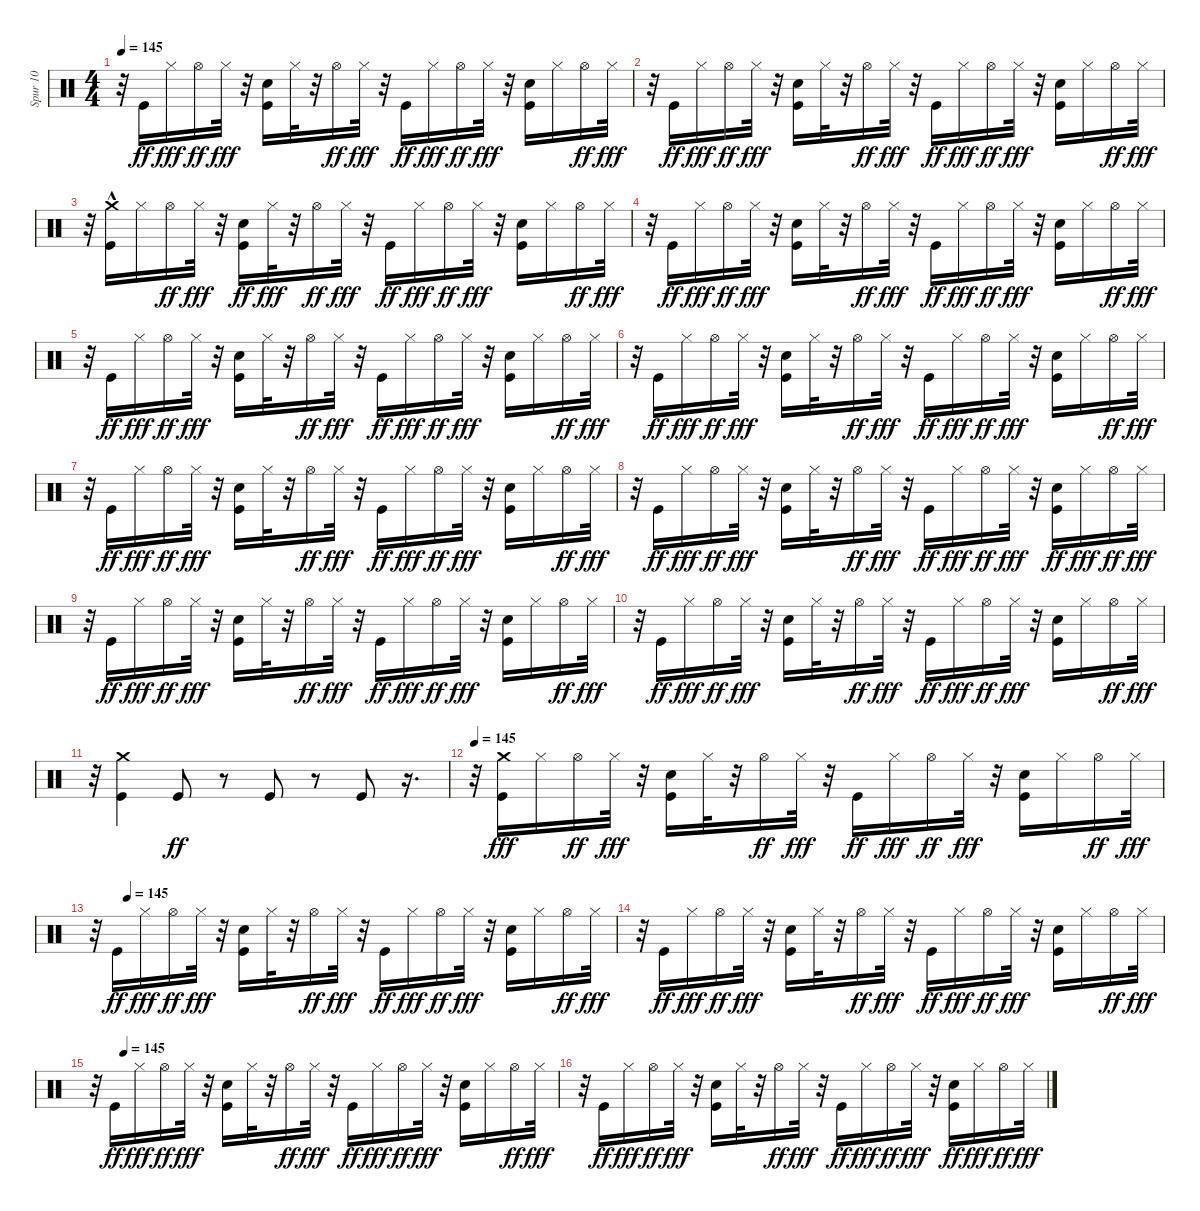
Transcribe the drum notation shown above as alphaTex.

\track ("Spur 10" "Spur 10") {instrument percussion}
\staff {score}
\articulation defaults
\ts (4 4)
\tempo 145
\clef neutral
\ks c
r.32{dy fff} "Kick (hit)".16{dy ff} "Hi-Hat (closed)".16{dy fff} "Hi-Hat (open)".16{dy ff} "Hi-Hat (closed)".32{dy fff} r.32 ("Kick (hit)" "Hand Clap (hit)").16 "Hi-Hat (closed)".32 r.32 "Hi-Hat (open)".16{dy ff} "Hi-Hat (closed)".32{dy fff} r.32 "Kick (hit)".16{dy ff} "Hi-Hat (closed)".16{dy fff} "Hi-Hat (open)".16{dy ff} "Hi-Hat (closed)".32{dy fff} r.32 ("Kick (hit)" "Hand Clap (hit)").16 "Hi-Hat (closed)".16 "Hi-Hat (open)".16{dy ff} "Hi-Hat (closed)".32{dy fff} |
r.32 "Kick (hit)".16{dy ff} "Hi-Hat (closed)".16{dy fff} "Hi-Hat (open)".16{dy ff} "Hi-Hat (closed)".32{dy fff} r.32 ("Kick (hit)" "Hand Clap (hit)").16 "Hi-Hat (closed)".32 r.32 "Hi-Hat (open)".16{dy ff} "Hi-Hat (closed)".32{dy fff} r.32 "Kick (hit)".16{dy ff} "Hi-Hat (closed)".16{dy fff} "Hi-Hat (open)".16{dy ff} "Hi-Hat (closed)".32{dy fff} r.32 ("Kick (hit)" "Hand Clap (hit)").16 "Hi-Hat (closed)".16 "Hi-Hat (open)".16{dy ff} "Hi-Hat (closed)".32{dy fff} |
r.32 ("Kick (hit)" "Crash medium (hit)"{hac}).16 "Hi-Hat (closed)".16 "Hi-Hat (open)".16{dy ff} "Hi-Hat (closed)".32{dy fff} r.32 ("Hand Clap (hit)" "Kick (hit)").16{dy ff} "Hi-Hat (closed)".32{dy fff} r.32 "Hi-Hat (open)".16{dy ff} "Hi-Hat (closed)".32{dy fff} r.32 "Kick (hit)".16{dy ff} "Hi-Hat (closed)".16{dy fff} "Hi-Hat (open)".16{dy ff} "Hi-Hat (closed)".32{dy fff} r.32 ("Kick (hit)" "Hand Clap (hit)").16 "Hi-Hat (closed)".16 "Hi-Hat (open)".16{dy ff} "Hi-Hat (closed)".32{dy fff} |
r.32 "Kick (hit)".16{dy ff} "Hi-Hat (closed)".16{dy fff} "Hi-Hat (open)".16{dy ff} "Hi-Hat (closed)".32{dy fff} r.32 ("Kick (hit)" "Hand Clap (hit)").16 "Hi-Hat (closed)".32 r.32 "Hi-Hat (open)".16{dy ff} "Hi-Hat (closed)".32{dy fff} r.32 "Kick (hit)".16{dy ff} "Hi-Hat (closed)".16{dy fff} "Hi-Hat (open)".16{dy ff} "Hi-Hat (closed)".32{dy fff} r.32 ("Kick (hit)" "Hand Clap (hit)").16 "Hi-Hat (closed)".16 "Hi-Hat (open)".16{dy ff} "Hi-Hat (closed)".32{dy fff} |
r.32 "Kick (hit)".16{dy ff} "Hi-Hat (closed)".16{dy fff} "Hi-Hat (open)".16{dy ff} "Hi-Hat (closed)".32{dy fff} r.32 ("Kick (hit)" "Hand Clap (hit)").16 "Hi-Hat (closed)".32 r.32 "Hi-Hat (open)".16{dy ff} "Hi-Hat (closed)".32{dy fff} r.32 "Kick (hit)".16{dy ff} "Hi-Hat (closed)".16{dy fff} "Hi-Hat (open)".16{dy ff} "Hi-Hat (closed)".32{dy fff} r.32 ("Kick (hit)" "Hand Clap (hit)").16 "Hi-Hat (closed)".16 "Hi-Hat (open)".16{dy ff} "Hi-Hat (closed)".32{dy fff} |
r.32 "Kick (hit)".16{dy ff} "Hi-Hat (closed)".16{dy fff} "Hi-Hat (open)".16{dy ff} "Hi-Hat (closed)".32{dy fff} r.32 ("Kick (hit)" "Hand Clap (hit)").16 "Hi-Hat (closed)".32 r.32 "Hi-Hat (open)".16{dy ff} "Hi-Hat (closed)".32{dy fff} r.32 "Kick (hit)".16{dy ff} "Hi-Hat (closed)".16{dy fff} "Hi-Hat (open)".16{dy ff} "Hi-Hat (closed)".32{dy fff} r.32 ("Kick (hit)" "Hand Clap (hit)").16 "Hi-Hat (closed)".16 "Hi-Hat (open)".16{dy ff} "Hi-Hat (closed)".32{dy fff} |
r.32 "Kick (hit)".16{dy ff} "Hi-Hat (closed)".16{dy fff} "Hi-Hat (open)".16{dy ff} "Hi-Hat (closed)".32{dy fff} r.32 ("Kick (hit)" "Hand Clap (hit)").16 "Hi-Hat (closed)".32 r.32 "Hi-Hat (open)".16{dy ff} "Hi-Hat (closed)".32{dy fff} r.32 "Kick (hit)".16{dy ff} "Hi-Hat (closed)".16{dy fff} "Hi-Hat (open)".16{dy ff} "Hi-Hat (closed)".32{dy fff} r.32 ("Kick (hit)" "Hand Clap (hit)").16 "Hi-Hat (closed)".16 "Hi-Hat (open)".16{dy ff} "Hi-Hat (closed)".32{dy fff} |
r.32 "Kick (hit)".16{dy ff} "Hi-Hat (closed)".16{dy fff} "Hi-Hat (open)".16{dy ff} "Hi-Hat (closed)".32{dy fff} r.32 ("Kick (hit)" "Hand Clap (hit)").16 "Hi-Hat (closed)".32 r.32 "Hi-Hat (open)".16{dy ff} "Hi-Hat (closed)".32{dy fff} r.32 "Kick (hit)".16{dy ff} "Hi-Hat (closed)".16{dy fff} "Hi-Hat (open)".16{dy ff} "Hi-Hat (closed)".32{dy fff} r.32 ("Hand Clap (hit)" "Kick (hit)").16{dy ff} "Hi-Hat (closed)".16{dy fff} "Hi-Hat (open)".16{dy ff} "Hi-Hat (closed)".32{dy fff} |
r.32 "Kick (hit)".16{dy ff} "Hi-Hat (closed)".16{dy fff} "Hi-Hat (open)".16{dy ff} "Hi-Hat (closed)".32{dy fff} r.32 ("Kick (hit)" "Hand Clap (hit)").16 "Hi-Hat (closed)".32 r.32 "Hi-Hat (open)".16{dy ff} "Hi-Hat (closed)".32{dy fff} r.32 "Kick (hit)".16{dy ff} "Hi-Hat (closed)".16{dy fff} "Hi-Hat (open)".16{dy ff} "Hi-Hat (closed)".32{dy fff} r.32 ("Kick (hit)" "Hand Clap (hit)").16 "Hi-Hat (closed)".16 "Hi-Hat (open)".16{dy ff} "Hi-Hat (closed)".32{dy fff} |
r.32 "Kick (hit)".16{dy ff} "Hi-Hat (closed)".16{dy fff} "Hi-Hat (open)".16{dy ff} "Hi-Hat (closed)".32{dy fff} r.32 ("Kick (hit)" "Hand Clap (hit)").16 "Hi-Hat (closed)".32 r.32 "Hi-Hat (open)".16{dy ff} "Hi-Hat (closed)".32{dy fff} r.32 "Kick (hit)".16{dy ff} "Hi-Hat (closed)".16{dy fff} "Hi-Hat (open)".16{dy ff} "Hi-Hat (closed)".32{dy fff} r.32 ("Kick (hit)" "Hand Clap (hit)").16 "Hi-Hat (closed)".16 "Hi-Hat (open)".16{dy ff} "Hi-Hat (closed)".32{dy fff} |
r.32 ("Kick (hit)" "Crash medium (hit)").4 "Kick (hit)".8{dy ff} r.8 "Kick (hit)".8 r.8 "Kick (hit)".8 r.16{d} |
\tempo 145
r.32 ("Kick (hit)" "Crash medium (hit)").16{dy fff} "Hi-Hat (closed)".16 "Hi-Hat (open)".16{dy ff} "Hi-Hat (closed)".32{dy fff} r.32 ("Kick (hit)" "Hand Clap (hit)").16 "Hi-Hat (closed)".32 r.32 "Hi-Hat (open)".16{dy ff} "Hi-Hat (closed)".32{dy fff} r.32 "Kick (hit)".16{dy ff} "Hi-Hat (closed)".16{dy fff} "Hi-Hat (open)".16{dy ff} "Hi-Hat (closed)".32{dy fff} r.32 ("Kick (hit)" "Hand Clap (hit)").16 "Hi-Hat (closed)".16 "Hi-Hat (open)".16{dy ff} "Hi-Hat (closed)".32{dy fff} |
\tempo (145 0.0625)
r.32 "Kick (hit)".16{dy ff} "Hi-Hat (closed)".16{dy fff} "Hi-Hat (open)".16{dy ff} "Hi-Hat (closed)".32{dy fff} r.32 ("Kick (hit)" "Hand Clap (hit)").16 "Hi-Hat (closed)".32 r.32 "Hi-Hat (open)".16{dy ff} "Hi-Hat (closed)".32{dy fff} r.32 "Kick (hit)".16{dy ff} "Hi-Hat (closed)".16{dy fff} "Hi-Hat (open)".16{dy ff} "Hi-Hat (closed)".32{dy fff} r.32 ("Kick (hit)" "Hand Clap (hit)").16 "Hi-Hat (closed)".16 "Hi-Hat (open)".16{dy ff} "Hi-Hat (closed)".32{dy fff} |
r.32 "Kick (hit)".16{dy ff} "Hi-Hat (closed)".16{dy fff} "Hi-Hat (open)".16{dy ff} "Hi-Hat (closed)".32{dy fff} r.32 ("Kick (hit)" "Hand Clap (hit)").16 "Hi-Hat (closed)".32 r.32 "Hi-Hat (open)".16{dy ff} "Hi-Hat (closed)".32{dy fff} r.32 "Kick (hit)".16{dy ff} "Hi-Hat (closed)".16{dy fff} "Hi-Hat (open)".16{dy ff} "Hi-Hat (closed)".32{dy fff} r.32 ("Kick (hit)" "Hand Clap (hit)").16 "Hi-Hat (closed)".16 "Hi-Hat (open)".16{dy ff} "Hi-Hat (closed)".32{dy fff} |
\tempo (145 0.0625)
r.32 "Kick (hit)".16{dy ff} "Hi-Hat (closed)".16{dy fff} "Hi-Hat (open)".16{dy ff} "Hi-Hat (closed)".32{dy fff} r.32 ("Kick (hit)" "Hand Clap (hit)").16 "Hi-Hat (closed)".32 r.32 "Hi-Hat (open)".16{dy ff} "Hi-Hat (closed)".32{dy fff} r.32 "Kick (hit)".16{dy ff} "Hi-Hat (closed)".16{dy fff} "Hi-Hat (open)".16{dy ff} "Hi-Hat (closed)".32{dy fff} r.32 ("Kick (hit)" "Hand Clap (hit)").16 "Hi-Hat (closed)".16 "Hi-Hat (open)".16{dy ff} "Hi-Hat (closed)".32{dy fff} |
r.32 "Kick (hit)".16{dy ff} "Hi-Hat (closed)".16{dy fff} "Hi-Hat (open)".16{dy ff} "Hi-Hat (closed)".32{dy fff} r.32 ("Kick (hit)" "Hand Clap (hit)").16 "Hi-Hat (closed)".32 r.32 "Hi-Hat (open)".16{dy ff} "Hi-Hat (closed)".32{dy fff} r.32 "Kick (hit)".16{dy ff} "Hi-Hat (closed)".16{dy fff} "Hi-Hat (open)".16{dy ff} "Hi-Hat (closed)".32{dy fff} r.32 ("Hand Clap (hit)" "Kick (hit)").16{dy ff} "Hi-Hat (closed)".16{dy fff} "Hi-Hat (open)".16{dy ff} "Hi-Hat (closed)".32{dy fff}
